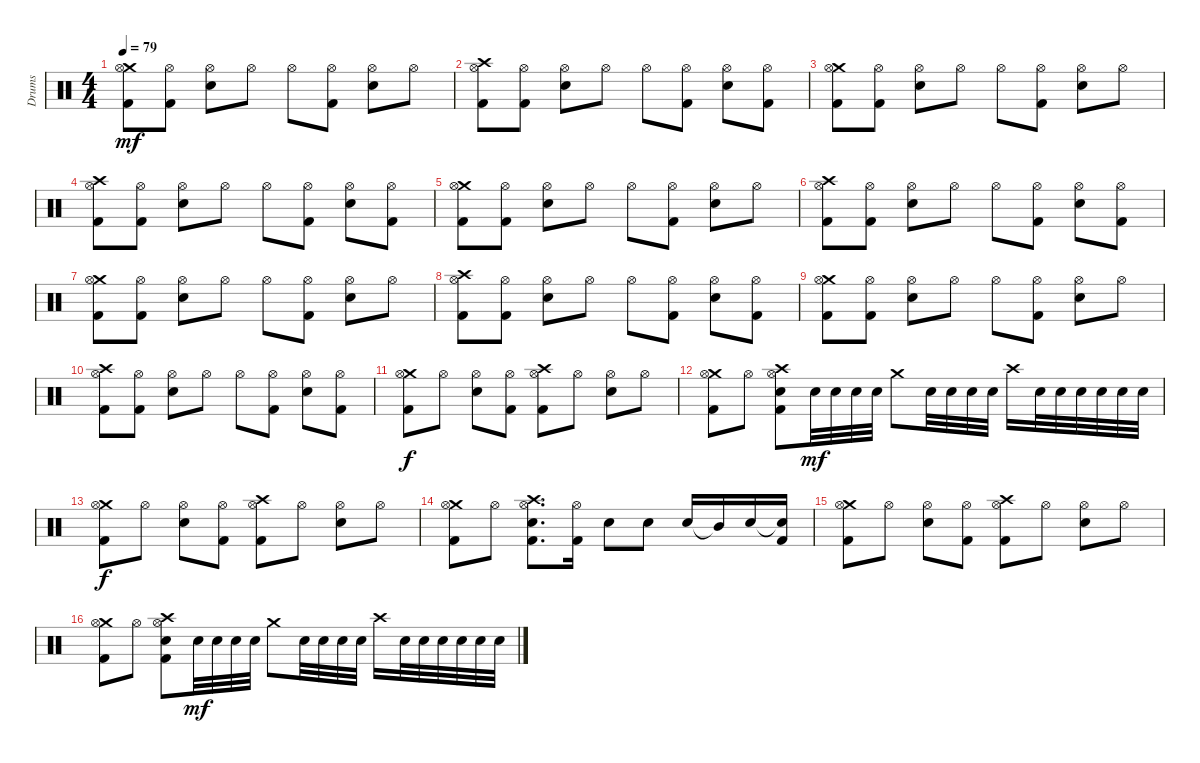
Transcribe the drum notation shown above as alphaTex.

\track ("Drums" "Drums") {instrument percussion}
\staff {score}
\articulation defaults
\ts (4 4)
\tempo 79
\clef neutral
\ks c
("Crash medium (hit)" "Hi-Hat (open)" "Kick (hit) 2").8{dy mf} ("Hi-Hat (open)" "Kick (hit) 2").8 ("Hi-Hat (open)" "Electric Snare (hit)").8 "Hi-Hat (open)".8 "Hi-Hat (open)".8 ("Hi-Hat (open)" "Kick (hit) 2"{tr (36 16)}).8 ("Hi-Hat (open)" "Electric Snare (hit)").8 "Hi-Hat (open)".8 |
("Crash high (hit)" "Hi-Hat (open)" "Kick (hit) 2").8 ("Hi-Hat (open)" "Kick (hit) 2").8 ("Hi-Hat (open)" "Electric Snare (hit)").8 "Hi-Hat (open)".8 "Hi-Hat (open)".8 ("Hi-Hat (open)" "Kick (hit) 2"{tr (36 16)}).8 ("Hi-Hat (open)" "Electric Snare (hit)").8 ("Hi-Hat (open)" "Kick (hit) 2").8 |
("Crash medium (hit)" "Hi-Hat (open)" "Kick (hit) 2").8 ("Hi-Hat (open)" "Kick (hit) 2").8 ("Hi-Hat (open)" "Electric Snare (hit)").8 "Hi-Hat (open)".8 "Hi-Hat (open)".8 ("Hi-Hat (open)" "Kick (hit) 2"{tr (36 16)}).8 ("Hi-Hat (open)" "Electric Snare (hit)").8 "Hi-Hat (open)".8 |
("Crash high (hit)" "Hi-Hat (open)" "Kick (hit) 2").8 ("Hi-Hat (open)" "Kick (hit) 2").8 ("Hi-Hat (open)" "Electric Snare (hit)").8 "Hi-Hat (open)".8 "Hi-Hat (open)".8 ("Hi-Hat (open)" "Kick (hit) 2"{tr (36 16)}).8 ("Hi-Hat (open)" "Electric Snare (hit)").8 ("Hi-Hat (open)" "Kick (hit) 2").8 |
("Crash medium (hit)" "Hi-Hat (open)" "Kick (hit) 2").8 ("Hi-Hat (open)" "Kick (hit) 2").8 ("Hi-Hat (open)" "Electric Snare (hit)").8 "Hi-Hat (open)".8 "Hi-Hat (open)".8 ("Hi-Hat (open)" "Kick (hit) 2"{tr (36 16)}).8 ("Hi-Hat (open)" "Electric Snare (hit)").8 "Hi-Hat (open)".8 |
("Crash high (hit)" "Hi-Hat (open)" "Kick (hit) 2").8 ("Hi-Hat (open)" "Kick (hit) 2").8 ("Hi-Hat (open)" "Electric Snare (hit)").8 "Hi-Hat (open)".8 "Hi-Hat (open)".8 ("Hi-Hat (open)" "Kick (hit) 2"{tr (36 16)}).8 ("Hi-Hat (open)" "Electric Snare (hit)").8 ("Hi-Hat (open)" "Kick (hit) 2").8 |
("Crash medium (hit)" "Hi-Hat (open)" "Kick (hit) 2").8 ("Hi-Hat (open)" "Kick (hit) 2").8 ("Hi-Hat (open)" "Electric Snare (hit)").8 "Hi-Hat (open)".8 "Hi-Hat (open)".8 ("Hi-Hat (open)" "Kick (hit) 2"{tr (36 16)}).8 ("Hi-Hat (open)" "Electric Snare (hit)").8 "Hi-Hat (open)".8 |
("Crash high (hit)" "Hi-Hat (open)" "Kick (hit) 2").8 ("Hi-Hat (open)" "Kick (hit) 2").8 ("Hi-Hat (open)" "Electric Snare (hit)").8 "Hi-Hat (open)".8 "Hi-Hat (open)".8 ("Hi-Hat (open)" "Kick (hit) 2"{tr (36 16)}).8 ("Hi-Hat (open)" "Electric Snare (hit)").8 ("Hi-Hat (open)" "Kick (hit) 2").8 |
("Crash medium (hit)" "Hi-Hat (open)" "Kick (hit) 2").8 ("Hi-Hat (open)" "Kick (hit) 2").8 ("Hi-Hat (open)" "Electric Snare (hit)").8 "Hi-Hat (open)".8 "Hi-Hat (open)".8 ("Hi-Hat (open)" "Kick (hit) 2"{tr (36 16)}).8 ("Hi-Hat (open)" "Electric Snare (hit)").8 "Hi-Hat (open)".8 |
("Crash high (hit)" "Hi-Hat (open)" "Kick (hit) 2").8 ("Hi-Hat (open)" "Kick (hit) 2").8 ("Hi-Hat (open)" "Electric Snare (hit)").8 "Hi-Hat (open)".8 "Hi-Hat (open)".8 ("Hi-Hat (open)" "Kick (hit) 2"{tr (36 16)}).8 ("Hi-Hat (open)" "Electric Snare (hit)").8 ("Hi-Hat (open)" "Kick (hit) 2").8 |
("Crash medium (hit)" "Hi-Hat (open)" "Kick (hit) 2").8{dy f} "Hi-Hat (open)".8 ("Hi-Hat (open)" "Electric Snare (hit)").8 ("Hi-Hat (open)" "Kick (hit) 2").8 ("Crash high (hit)" "Hi-Hat (open)" "Kick (hit) 2").8 "Hi-Hat (open)".8 ("Hi-Hat (open)" "Electric Snare (hit)").8 "Hi-Hat (open)".8 |
("Crash medium (hit)" "Hi-Hat (open)" "Kick (hit) 2").8 "Hi-Hat (open)".8 ("Crash high (hit)" "Hi-Hat (open)" "Electric Snare (hit)" "Kick (hit) 2").8 "Electric Snare (hit)".32{dy mf} "Electric Snare (hit)".32 "Electric Snare (hit)".32 "Electric Snare (hit)".32 "Crash medium (hit)".8 "Electric Snare (hit)".32 "Electric Snare (hit)".32 "Electric Snare (hit)".32 "Electric Snare (hit)".32 "Crash high (hit)".16 "Electric Snare (hit)".32 "Electric Snare (hit)".32 "Electric Snare (hit)".32 "Electric Snare (hit)".32 "Electric Snare (hit)".32 "Electric Snare (hit)".32 |
("Crash medium (hit)" "Hi-Hat (open)" "Kick (hit) 2").8{dy f} "Hi-Hat (open)".8 ("Hi-Hat (open)" "Electric Snare (hit)").8 ("Hi-Hat (open)" "Kick (hit) 2").8 ("Crash high (hit)" "Hi-Hat (open)" "Kick (hit) 2").8 "Hi-Hat (open)".8 ("Hi-Hat (open)" "Electric Snare (hit)").8 "Hi-Hat (open)".8 |
("Crash medium (hit)" "Hi-Hat (open)" "Kick (hit) 2").8 "Hi-Hat (open)".8 ("Crash high (hit)" "Hi-Hat (open)" "Electric Snare (hit)" "Kick (hit) 2").8{d} ("Hi-Hat (open)" "Kick (hit) 2").16 "Electric Snare (hit)".8 "Electric Snare (hit)".8 "Electric Snare (hit)".16 "Mid Tom (hit)"{t}.16 "Electric Snare (hit)".16 ("Snare (hit)"{t} "Kick (hit) 2").16 |
("Crash medium (hit)" "Hi-Hat (open)" "Kick (hit) 2").8 "Hi-Hat (open)".8 ("Hi-Hat (open)" "Electric Snare (hit)").8 ("Hi-Hat (open)" "Kick (hit) 2").8 ("Crash high (hit)" "Hi-Hat (open)" "Kick (hit) 2").8 "Hi-Hat (open)".8 ("Hi-Hat (open)" "Electric Snare (hit)").8 "Hi-Hat (open)".8 |
("Crash medium (hit)" "Hi-Hat (open)" "Kick (hit) 2").8 "Hi-Hat (open)".8 ("Crash high (hit)" "Hi-Hat (open)" "Electric Snare (hit)" "Kick (hit) 2").8 "Electric Snare (hit)".32{dy mf} "Electric Snare (hit)".32 "Electric Snare (hit)".32 "Electric Snare (hit)".32 "Crash medium (hit)".8 "Electric Snare (hit)".32 "Electric Snare (hit)".32 "Electric Snare (hit)".32 "Electric Snare (hit)".32 "Crash high (hit)".16 "Electric Snare (hit)".32 "Electric Snare (hit)".32 "Electric Snare (hit)".32 "Electric Snare (hit)".32 "Electric Snare (hit)".32 "Electric Snare (hit)".32
